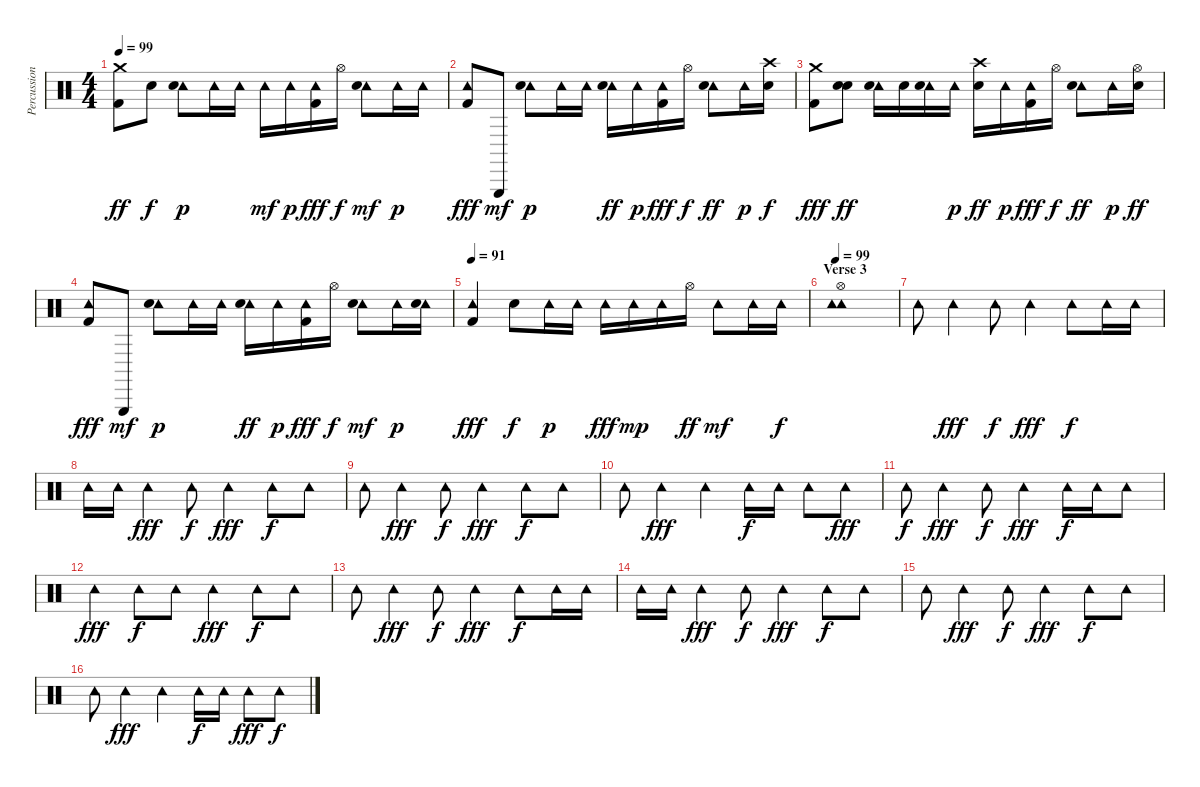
\track ("Percussion" "Percussion") {instrument percussion}
\staff {score}
\articulation defaults
\ts (4 4)
\tempo 99
\clef neutral
\ks c
("Crash medium (hit)" "Kick (hit) 2").8{dy ff} "Metronome (bell)".8{dy f} ("Tambourine (hit)" "Snare (hit) 2").8{dy p} "Tambourine (hit)".16 "Tambourine (hit)".16 "Tambourine (hit)".16{dy mf} "Tambourine (hit)".16{dy p} ("Tambourine (hit)" "Kick (hit) 2").16{dy fff} "Hi-Hat (open)".16{dy f} ("Tambourine (hit)" "Snare (hit) 2").8{dy mf} "Tambourine (hit)".16{dy p} "Tambourine (hit)".16 |
("Tambourine (hit)" "Kick (hit) 2").8{dy fff} "Triangle (hit)".8{dy mf} ("Tambourine (hit)" "Snare (hit) 2").8{dy p} "Tambourine (hit)".16 "Tambourine (hit)".16 ("Tambourine (hit)" "Snare (hit) 2").16{dy ff} "Tambourine (hit)".16{dy p} ("Tambourine (hit)" "Kick (hit) 2").16{dy fff} "Hi-Hat (open)".16{dy f} ("Tambourine (hit)" "Snare (hit) 2").8{dy ff} "Tambourine (hit)".16{dy p} ("Crash high (hit)" "Snare (hit) 2").16{dy f} |
("Crash medium (hit)" "Kick (hit) 2").8{dy fff} ("Metronome (bell)" "Snare (hit) 2").8{dy ff} ("Tambourine (hit)" "Snare (hit) 2").16 "Electric Snare (hit)".16 ("Tambourine (hit)" "Snare (hit) 2").16 "Tambourine (hit)".16{dy p} ("Crash high (hit)" "Snare (hit) 2").16{dy ff} "Tambourine (hit)".16{dy p} ("Tambourine (hit)" "Kick (hit) 2").16{dy fff} "Hi-Hat (open)".16{dy f} ("Tambourine (hit)" "Snare (hit) 2").8{dy ff} "Tambourine (hit)".16{dy p} ("Hi-Hat (open)" "Snare (hit) 2").16{dy ff} |
("Tambourine (hit)" "Kick (hit) 2").8{dy fff} "Triangle (hit)".8{dy mf} ("Tambourine (hit)" "Snare (hit) 2").8{dy p} "Tambourine (hit)".16 "Tambourine (hit)".16 ("Tambourine (hit)" "Snare (hit) 2").16{dy ff} "Tambourine (hit)".16{dy p} ("Tambourine (hit)" "Kick (hit) 2").16{dy fff} "Hi-Hat (open)".16{dy f} ("Tambourine (hit)" "Snare (hit) 2").8{dy mf} "Tambourine (hit)".16{dy p} ("Tambourine (hit)" "Snare (hit) 2").16 |
\tempo 91
("Tambourine (hit)" "Kick (hit) 2").4{dy fff volume 5} "Metronome (bell)".8{dy f} "Tambourine (hit)".16{dy p} "Tambourine (hit)".16 "Tambourine (hit)".16{dy fff} "Tambourine (hit)".16{dy mp} "Tambourine (hit)".16 "Hi-Hat (open)".16{dy ff} "Tambourine (hit)".8{dy mf} "Tambourine (hit)".16 "Tambourine (hit)".16{dy f} |
\section ("" "Verse 3")
\tempo 99
("Tambourine (hit)" "Tambourine (hit)" "Hi-Hat (open)").1{bd 480} |
"Tambourine (hit)".8 "Tambourine (hit)".4{dy fff} "Tambourine (hit)".8{dy f} "Tambourine (hit)".4{dy fff} "Tambourine (hit)".8{dy f} "Tambourine (hit)".16 "Tambourine (hit)".16 |
"Tambourine (hit)".16 "Tambourine (hit)".16 "Tambourine (hit)".4{dy fff} "Tambourine (hit)".8{dy f} "Tambourine (hit)".4{dy fff} "Tambourine (hit)".8{dy f} "Tambourine (hit)".8 |
"Tambourine (hit)".8 "Tambourine (hit)".4{dy fff} "Tambourine (hit)".8{dy f} "Tambourine (hit)".4{dy fff} "Tambourine (hit)".8{dy f} "Tambourine (hit)".8 |
"Tambourine (hit)".8 "Tambourine (hit)".4{dy fff} "Tambourine (hit)".4 "Tambourine (hit)".16{dy f} "Tambourine (hit)".16 "Tambourine (hit)".8 "Tambourine (hit)".8{dy fff} |
"Tambourine (hit)".8{dy f} "Tambourine (hit)".4{dy fff} "Tambourine (hit)".8{dy f} "Tambourine (hit)".4{dy fff} "Tambourine (hit)".16{dy f} "Tambourine (hit)".16 "Tambourine (hit)".8 |
"Tambourine (hit)".4{dy fff} "Tambourine (hit)".8{dy f} "Tambourine (hit)".8 "Tambourine (hit)".4{dy fff} "Tambourine (hit)".8{dy f} "Tambourine (hit)".8 |
"Tambourine (hit)".8 "Tambourine (hit)".4{dy fff} "Tambourine (hit)".8{dy f} "Tambourine (hit)".4{dy fff} "Tambourine (hit)".8{dy f} "Tambourine (hit)".16 "Tambourine (hit)".16 |
"Tambourine (hit)".16 "Tambourine (hit)".16 "Tambourine (hit)".4{dy fff} "Tambourine (hit)".8{dy f} "Tambourine (hit)".4{dy fff} "Tambourine (hit)".8{dy f} "Tambourine (hit)".8 |
"Tambourine (hit)".8{volume 2} "Tambourine (hit)".4{dy fff} "Tambourine (hit)".8{dy f} "Tambourine (hit)".4{dy fff} "Tambourine (hit)".8{dy f} "Tambourine (hit)".8 |
"Tambourine (hit)".8 "Tambourine (hit)".4{dy fff} "Tambourine (hit)".4 "Tambourine (hit)".16{dy f} "Tambourine (hit)".16 "Tambourine (hit)".8{dy fff} "Tambourine (hit)".8{dy f}
